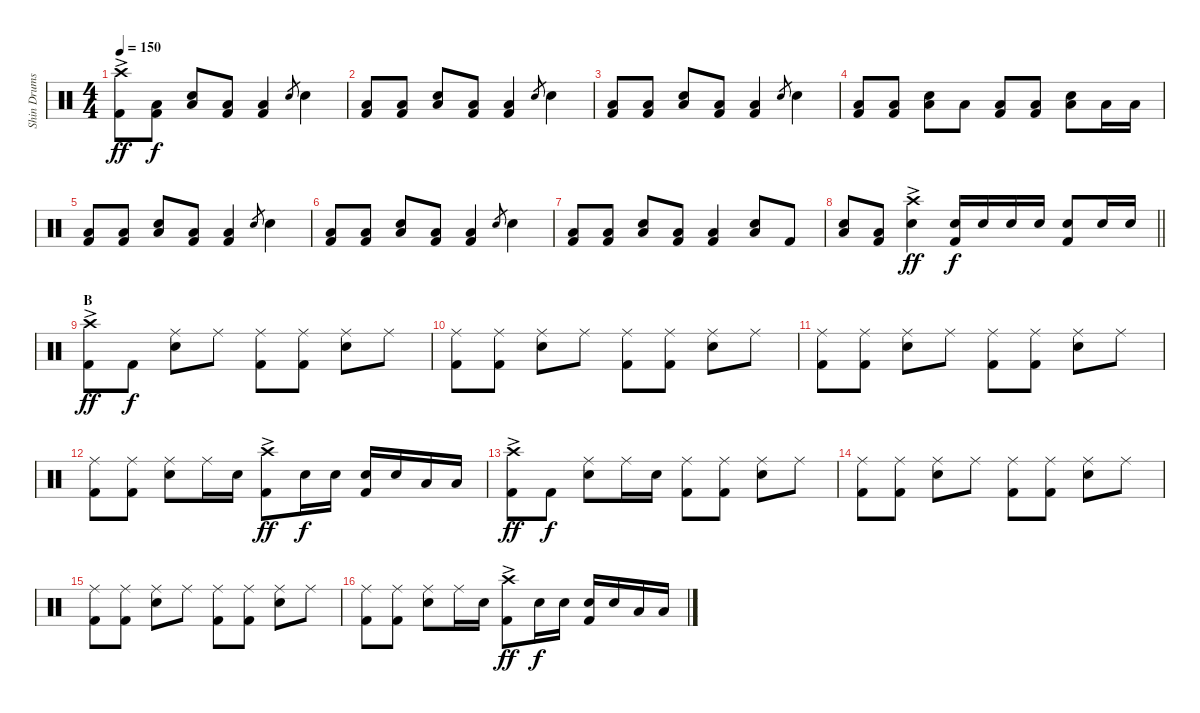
\track ("Shin Drums" "Shin Drums") {instrument percussion}
\staff {score}
\articulation defaults
\ts (4 4)
\tempo 150
\clef neutral
\ks c
("Crash high (hit)"{ac} "Kick (hit) 2").8{dy ff} ("Low Floor Tom (hit)" "Kick (hit) 2").8{dy f} ("Snare (hit) 2" "Low Floor Tom (hit)").8 ("Low Floor Tom (hit)" "Kick (hit) 2").8 ("Low Floor Tom (hit)" "Kick (hit) 2").4 "Snare (hit) 2".8{gr} "Snare (hit) 2".4 |
("Low Floor Tom (hit)" "Kick (hit) 2").8 ("Low Floor Tom (hit)" "Kick (hit) 2").8 ("Snare (hit) 2" "Low Floor Tom (hit)").8 ("Low Floor Tom (hit)" "Kick (hit) 2").8 ("Low Floor Tom (hit)" "Kick (hit) 2").4 "Snare (hit) 2".8{gr} "Snare (hit) 2".4 |
("Low Floor Tom (hit)" "Kick (hit) 2").8 ("Low Floor Tom (hit)" "Kick (hit) 2").8 ("Snare (hit) 2" "Low Floor Tom (hit)").8 ("Low Floor Tom (hit)" "Kick (hit) 2").8 ("Low Floor Tom (hit)" "Kick (hit) 2").4 "Snare (hit) 2".8{gr} "Snare (hit) 2".4 |
("Low Floor Tom (hit)" "Kick (hit) 2").8 ("Low Floor Tom (hit)" "Kick (hit) 2").8 ("Snare (hit) 2" "Low Floor Tom (hit)").8 "Low Floor Tom (hit)".8 ("Low Floor Tom (hit)" "Kick (hit) 2").8 ("Low Floor Tom (hit)" "Kick (hit) 2").8 ("Snare (hit) 2" "Low Floor Tom (hit)").8 "Low Floor Tom (hit)".16 "Low Floor Tom (hit)".16 |
("Low Floor Tom (hit)" "Kick (hit) 2").8 ("Low Floor Tom (hit)" "Kick (hit) 2").8 ("Snare (hit) 2" "Low Floor Tom (hit)").8 ("Low Floor Tom (hit)" "Kick (hit) 2").8 ("Low Floor Tom (hit)" "Kick (hit) 2").4 "Snare (hit) 2".8{gr} "Snare (hit) 2".4 |
("Low Floor Tom (hit)" "Kick (hit) 2").8 ("Low Floor Tom (hit)" "Kick (hit) 2").8 ("Snare (hit) 2" "Low Floor Tom (hit)").8 ("Low Floor Tom (hit)" "Kick (hit) 2").8 ("Low Floor Tom (hit)" "Kick (hit) 2").4 "Snare (hit) 2".8{gr} "Snare (hit) 2".4 |
("Low Floor Tom (hit)" "Kick (hit) 2").8 ("Low Floor Tom (hit)" "Kick (hit) 2").8 ("Snare (hit) 2" "Low Floor Tom (hit)").8 ("Low Floor Tom (hit)" "Kick (hit) 2").8 ("Low Floor Tom (hit)" "Kick (hit) 2").4 ("Snare (hit) 2" "Low Floor Tom (hit)").8 "Kick (hit) 2".8 |
\barLineRight lightlight
("Snare (hit) 2" "Low Floor Tom (hit)").8 ("Low Floor Tom (hit)" "Kick (hit) 2").8 ("Crash high (hit)"{ac} "Snare (hit) 2").4{dy ff} ("Snare (hit) 2" "Kick (hit) 2").16{dy f} "Snare (hit) 2".16 "Snare (hit) 2".16 "Snare (hit) 2".16 ("Snare (hit) 2" "Kick (hit) 2").8 "Snare (hit) 2".16 "Snare (hit) 2".16 |
\section ("" "B")
("Crash high (hit)"{ac} "Kick (hit) 2").8{dy ff} "Kick (hit) 2".8{dy f} ("Ride (middle)" "Snare (hit) 2").8 "Ride (middle)".8 ("Ride (middle)" "Kick (hit) 2").8 ("Ride (middle)" "Kick (hit) 2").8 ("Ride (middle)" "Snare (hit) 2").8 "Ride (middle)".8 |
("Ride (middle)" "Kick (hit) 2").8 ("Ride (middle)" "Kick (hit) 2").8 ("Ride (middle)" "Snare (hit) 2").8 "Ride (middle)".8 ("Ride (middle)" "Kick (hit) 2").8 ("Ride (middle)" "Kick (hit) 2").8 ("Ride (middle)" "Snare (hit) 2").8 "Ride (middle)".8 |
("Ride (middle)" "Kick (hit) 2").8 ("Ride (middle)" "Kick (hit) 2").8 ("Ride (middle)" "Snare (hit) 2").8 "Ride (middle)".8 ("Ride (middle)" "Kick (hit) 2").8 ("Ride (middle)" "Kick (hit) 2").8 ("Ride (middle)" "Snare (hit) 2").8 "Ride (middle)".8 |
("Ride (middle)" "Kick (hit) 2").8 ("Ride (middle)" "Kick (hit) 2").8 ("Ride (middle)" "Snare (hit) 2").8 "Ride (middle)".16 "Snare (hit) 2".16 ("Crash high (hit)"{ac} "Kick (hit) 2").8{dy ff} "Snare (hit) 2".16{dy f} "Snare (hit) 2".16 ("Snare (hit) 2" "Kick (hit) 2").16 "Snare (hit) 2".16 "Low Floor Tom (hit)".16 "Low Floor Tom (hit)".16 |
("Crash high (hit)"{ac} "Kick (hit) 2").8{dy ff} "Kick (hit) 2".8{dy f} ("Ride (middle)" "Snare (hit) 2").8 "Ride (middle)".16 "Snare (hit) 2".16 ("Ride (middle)" "Kick (hit) 2").8 ("Ride (middle)" "Kick (hit) 2").8 ("Ride (middle)" "Snare (hit) 2").8 "Ride (middle)".8 |
("Ride (middle)" "Kick (hit) 2").8 ("Ride (middle)" "Kick (hit) 2").8 ("Ride (middle)" "Snare (hit) 2").8 "Ride (middle)".8 ("Ride (middle)" "Kick (hit) 2").8 ("Ride (middle)" "Kick (hit) 2").8 ("Ride (middle)" "Snare (hit) 2").8 "Ride (middle)".8 |
("Ride (middle)" "Kick (hit) 2").8 ("Ride (middle)" "Kick (hit) 2").8 ("Ride (middle)" "Snare (hit) 2").8 "Ride (middle)".8 ("Ride (middle)" "Kick (hit) 2").8 ("Ride (middle)" "Kick (hit) 2").8 ("Ride (middle)" "Snare (hit) 2").8 "Ride (middle)".8 |
("Ride (middle)" "Kick (hit) 2").8 ("Ride (middle)" "Kick (hit) 2").8 ("Ride (middle)" "Snare (hit) 2").8 "Ride (middle)".16 "Snare (hit) 2".16 ("Crash high (hit)"{ac} "Kick (hit) 2").8{dy ff} "Snare (hit) 2".16{dy f} "Snare (hit) 2".16 ("Snare (hit) 2" "Kick (hit) 2").16 "Snare (hit) 2".16 "Low Floor Tom (hit)".16 "Low Floor Tom (hit)".16
